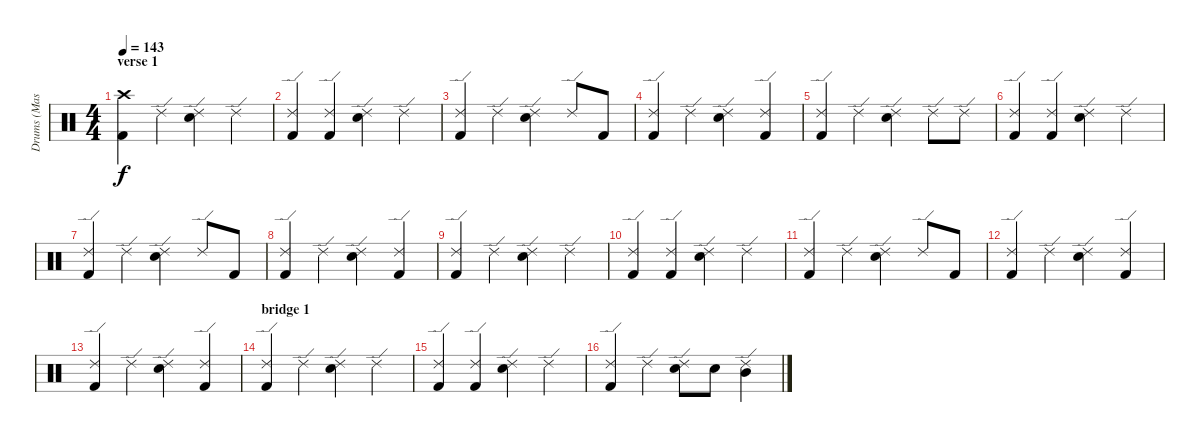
\track ("Drums (Mason)" "Drums (Mas") {instrument percussion}
\staff {score}
\articulation defaults
\ts (4 4)
\section ("" "verse 1")
\tempo 143
\clef neutral
\ks c
("Crash high (hit)" "Kick (hit) 2").4{dy f} "Ride (edge) 2".4 ("Ride (edge) 2" "Electric Snare (hit)").4 "Ride (edge) 2".4 |
("Ride (edge) 2" "Kick (hit) 2").4 ("Ride (edge) 2" "Kick (hit) 2").4 ("Ride (edge) 2" "Electric Snare (hit)").4 "Ride (edge) 2".4 |
("Ride (edge) 2" "Kick (hit) 2").4 "Ride (edge) 2".4 ("Ride (edge) 2" "Electric Snare (hit)").4 "Ride (edge) 2".8 "Kick (hit) 2".8 |
("Ride (edge) 2" "Kick (hit) 2").4 "Ride (edge) 2".4 ("Ride (edge) 2" "Electric Snare (hit)").4 ("Ride (edge) 2" "Kick (hit) 2").4 |
("Ride (edge) 2" "Kick (hit) 2").4 "Ride (edge) 2".4 ("Ride (edge) 2" "Electric Snare (hit)").4 "Ride (edge) 2".8 "Ride (edge) 2".8 |
("Ride (edge) 2" "Kick (hit) 2").4 ("Ride (edge) 2" "Kick (hit) 2").4 ("Ride (edge) 2" "Electric Snare (hit)").4 "Ride (edge) 2".4 |
("Ride (edge) 2" "Kick (hit) 2").4 "Ride (edge) 2".4 ("Ride (edge) 2" "Electric Snare (hit)").4 "Ride (edge) 2".8 "Kick (hit) 2".8 |
("Ride (edge) 2" "Kick (hit) 2").4 "Ride (edge) 2".4 ("Ride (edge) 2" "Electric Snare (hit)").4 ("Ride (edge) 2" "Kick (hit) 2").4 |
("Ride (edge) 2" "Kick (hit) 2").4 "Ride (edge) 2".4 ("Ride (edge) 2" "Electric Snare (hit)").4 "Ride (edge) 2".4 |
("Ride (edge) 2" "Kick (hit) 2").4 ("Ride (edge) 2" "Kick (hit) 2").4 ("Ride (edge) 2" "Electric Snare (hit)").4 "Ride (edge) 2".4 |
("Ride (edge) 2" "Kick (hit) 2").4 "Ride (edge) 2".4 ("Ride (edge) 2" "Electric Snare (hit)").4 "Ride (edge) 2".8 "Kick (hit) 2".8 |
("Ride (edge) 2" "Kick (hit) 2").4 "Ride (edge) 2".4 ("Ride (edge) 2" "Electric Snare (hit)").4 ("Ride (edge) 2" "Kick (hit) 2").4 |
("Ride (edge) 2" "Kick (hit) 2").4 "Ride (edge) 2".4 ("Ride (edge) 2" "Electric Snare (hit)").4 ("Ride (edge) 2" "Kick (hit) 2").4 |
\section ("" "bridge 1")
("Ride (edge) 2" "Kick (hit) 2").4 "Ride (edge) 2".4 ("Ride (edge) 2" "Electric Snare (hit)").4 "Ride (edge) 2".4 |
("Ride (edge) 2" "Kick (hit) 2").4 ("Ride (edge) 2" "Kick (hit) 2").4 ("Ride (edge) 2" "Electric Snare (hit)").4 "Ride (edge) 2".4 |
("Ride (edge) 2" "Kick (hit) 2").4 "Ride (edge) 2".4 ("Ride (edge) 2" "Electric Snare (hit)").8 "Electric Snare (hit)".8 ("Ride (edge) 2" "Mid Tom (hit)").4
